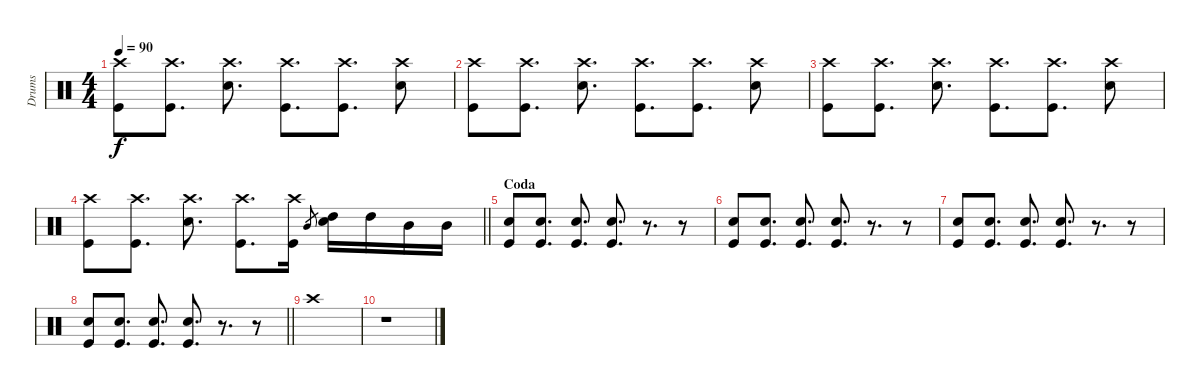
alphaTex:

\track ("Drums" "Drums") {instrument percussion}
\staff {score}
\articulation defaults
\ts (4 4)
\tempo 90
\clef neutral
\ks c
("Crash high (hit)" "Kick (hit)").8{dy f} ("Crash high (hit)" "Kick (hit)").8{d} ("Crash high (hit)" "Electric Snare (hit)").8{d} ("Crash high (hit)" "Kick (hit)").8{d} ("Crash high (hit)" "Kick (hit)").8{d} ("Crash high (hit)" "Electric Snare (hit)").8 |
("Crash high (hit)" "Kick (hit)").8 ("Crash high (hit)" "Kick (hit)").8{d} ("Crash high (hit)" "Electric Snare (hit)").8{d} ("Crash high (hit)" "Kick (hit)").8{d} ("Crash high (hit)" "Kick (hit)").8{d} ("Crash high (hit)" "Electric Snare (hit)").8 |
("Crash high (hit)" "Kick (hit)").8 ("Crash high (hit)" "Kick (hit)").8{d} ("Crash high (hit)" "Electric Snare (hit)").8{d} ("Crash high (hit)" "Kick (hit)").8{d} ("Crash high (hit)" "Kick (hit)").8{d} ("Crash high (hit)" "Electric Snare (hit)").8 |
\barLineRight lightlight
("Crash high (hit)" "Kick (hit)").8 ("Crash high (hit)" "Kick (hit)").8{d} ("Crash high (hit)" "Electric Snare (hit)").8{d} ("Crash high (hit)" "Kick (hit)").8{d} ("Crash high (hit)" "Kick (hit)").16 "Mid Tom (hit)".8{gr} ("High Tom (hit)" "Electric Snare (hit)").16 "High Tom (hit)".16 "Mid Tom (hit)".16 "Mid Tom (hit)".16 |
\section ("" "Coda")
("Electric Snare (hit)" "Kick (hit)").8 ("Electric Snare (hit)" "Kick (hit)").8{d} ("Electric Snare (hit)" "Kick (hit)").8{d} ("Electric Snare (hit)" "Kick (hit)").8{d} r.8{d} r.8 |
("Electric Snare (hit)" "Kick (hit)").8 ("Electric Snare (hit)" "Kick (hit)").8{d} ("Electric Snare (hit)" "Kick (hit)").8{d} ("Electric Snare (hit)" "Kick (hit)").8{d} r.8{d} r.8 |
("Electric Snare (hit)" "Kick (hit)").8 ("Electric Snare (hit)" "Kick (hit)").8{d} ("Electric Snare (hit)" "Kick (hit)").8{d} ("Electric Snare (hit)" "Kick (hit)").8{d} r.8{d} r.8 |
\barLineRight lightlight
("Electric Snare (hit)" "Kick (hit)").8 ("Electric Snare (hit)" "Kick (hit)").8{d} ("Electric Snare (hit)" "Kick (hit)").8{d} ("Electric Snare (hit)" "Kick (hit)").8{d} r.8{d} r.8 |
"Crash high (hit)".1 |
r.1
